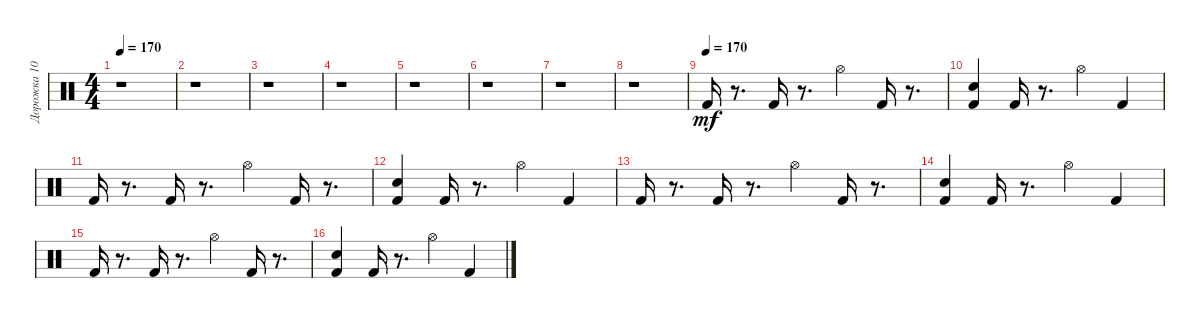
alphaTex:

\track ("Дорожка 10" "Дорожка 10") {instrument percussion}
\staff {score}
\articulation defaults
\ts (4 4)
\tempo 170
\clef neutral
\ks c
r.1{dy mf} |
r.1 |
r.1 |
r.1 |
r.1 |
r.1 |
r.1 |
r.1 |
\tempo (170)
"Kick (hit) 2".16 r.8{d} "Kick (hit) 2".16 r.8{d} "Hi-Hat (open)".4 "Kick (hit) 2".16 r.8{d} |
("Electric Snare (hit)" "Kick (hit) 2").4 "Kick (hit) 2".16 r.8{d} "Hi-Hat (open)".4 "Kick (hit) 2".4 |
"Kick (hit) 2".16 r.8{d} "Kick (hit) 2".16 r.8{d} "Hi-Hat (open)".4 "Kick (hit) 2".16 r.8{d} |
("Electric Snare (hit)" "Kick (hit) 2").4 "Kick (hit) 2".16 r.8{d} "Hi-Hat (open)".4 "Kick (hit) 2".4 |
"Kick (hit) 2".16 r.8{d} "Kick (hit) 2".16 r.8{d} "Hi-Hat (open)".4 "Kick (hit) 2".16 r.8{d} |
("Electric Snare (hit)" "Kick (hit) 2").4 "Kick (hit) 2".16 r.8{d} "Hi-Hat (open)".4 "Kick (hit) 2".4 |
"Kick (hit) 2".16 r.8{d} "Kick (hit) 2".16 r.8{d} "Hi-Hat (open)".4 "Kick (hit) 2".16 r.8{d} |
("Electric Snare (hit)" "Kick (hit) 2").4 "Kick (hit) 2".16 r.8{d} "Hi-Hat (open)".4 "Kick (hit) 2".4
